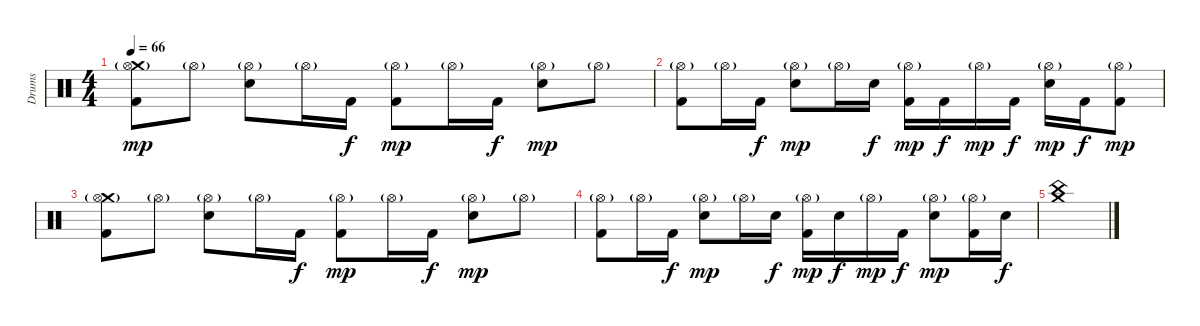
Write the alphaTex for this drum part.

\track ("Drums" "Drums") {instrument percussion}
\staff {score}
\articulation defaults
\ts (4 4)
\tempo 66
\clef neutral
\ks c
("Crash medium (hit)" "Hi-Hat (open)"{g} "Kick (hit) 2").8{dy mp} "Hi-Hat (open)"{g}.8 ("Electric Snare (hit)" "Hi-Hat (open)"{g}).8 "Hi-Hat (open)"{g}.16 "Kick (hit) 2".16{dy f} ("Hi-Hat (open)"{g} "Kick (hit) 2").8{dy mp} "Hi-Hat (open)"{g}.16 "Kick (hit) 2".16{dy f} ("Electric Snare (hit)" "Hi-Hat (open)"{g}).8{dy mp} "Hi-Hat (open)"{g}.8 |
("Hi-Hat (open)"{g} "Kick (hit) 2").8 "Hi-Hat (open)"{g}.16 "Kick (hit) 2".16{dy f} ("Electric Snare (hit)" "Hi-Hat (open)"{g}).8{dy mp} "Hi-Hat (open)"{g}.16 "Electric Snare (hit)".16{dy f} ("Hi-Hat (open)"{g} "Kick (hit) 2").16{dy mp} "Kick (hit) 2".16{dy f} "Hi-Hat (open)"{g}.16{dy mp} "Kick (hit) 2".16{dy f} ("Electric Snare (hit)" "Hi-Hat (open)"{g}).16{dy mp} "Kick (hit) 2".16{dy f} ("Hi-Hat (open)"{g} "Kick (hit) 2").8{dy mp} |
("Crash medium (hit)" "Hi-Hat (open)"{g} "Kick (hit) 2").8 "Hi-Hat (open)"{g}.8 ("Electric Snare (hit)" "Hi-Hat (open)"{g}).8 "Hi-Hat (open)"{g}.16 "Kick (hit) 2".16{dy f} ("Hi-Hat (open)"{g} "Kick (hit) 2").8{dy mp} "Hi-Hat (open)"{g}.16 "Kick (hit) 2".16{dy f} ("Electric Snare (hit)" "Hi-Hat (open)"{g}).8{dy mp} "Hi-Hat (open)"{g}.8 |
("Hi-Hat (open)"{g} "Kick (hit) 2").8 "Hi-Hat (open)"{g}.16 "Kick (hit) 2".16{dy f} ("Electric Snare (hit)" "Hi-Hat (open)"{g}).8{dy mp} "Hi-Hat (open)"{g}.16 "Electric Snare (hit)".16{dy f} ("Hi-Hat (open)"{g} "Kick (hit) 2").16{dy mp} "Electric Snare (hit)".16{dy f} "Hi-Hat (open)"{g}.16{dy mp} "Kick (hit) 2".16{dy f} ("Electric Snare (hit)" "Hi-Hat (open)"{g}).8{dy mp} ("Hi-Hat (open)"{g} "Kick (hit) 2").16 "Electric Snare (hit)".16{dy f} |
("China (hit)" "Crash medium (hit)").1
